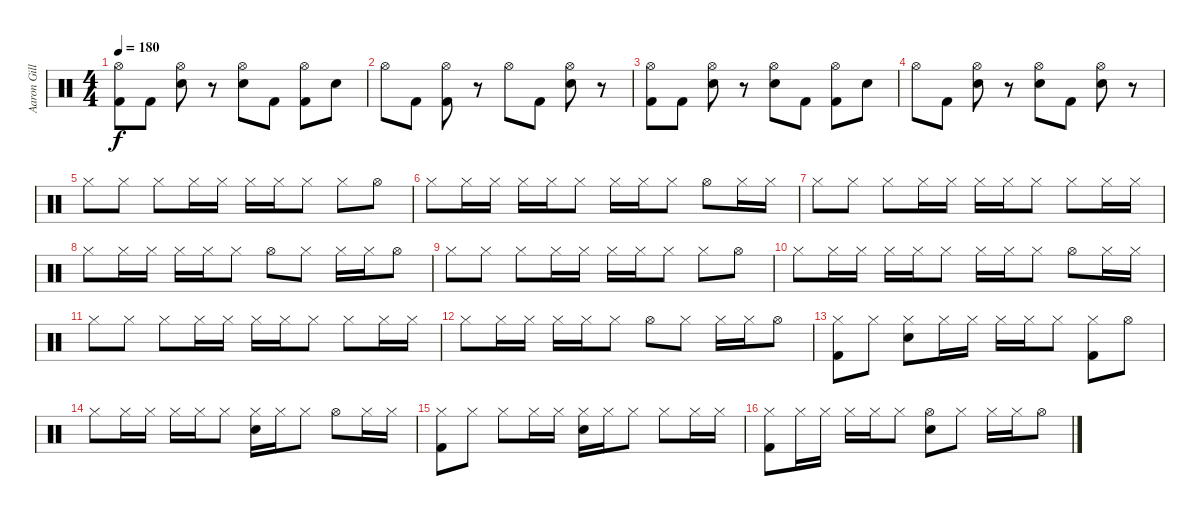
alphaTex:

\track ("Aaron Gillespie 1" "Aaron Gill") {instrument percussion}
\staff {score}
\articulation defaults
\ts (4 4)
\tempo 180
\clef neutral
\ks c
("Hi-Hat (open)" "Kick (hit) 2").8{dy f} "Kick (hit) 2".8 ("Hi-Hat (open)" "Snare (hit) 2").8 r.8 ("Hi-Hat (open)" "Snare (hit) 2").8 "Kick (hit) 2".8 ("Hi-Hat (open)" "Kick (hit) 2").8 "Snare (hit) 2".8 |
"Hi-Hat (open)".8 "Kick (hit) 2".8 ("Hi-Hat (open)" "Kick (hit) 2").8 r.8 "Hi-Hat (open)".8 "Kick (hit) 2".8 ("Hi-Hat (open)" "Snare (hit) 2").8 r.8 |
("Hi-Hat (open)" "Kick (hit) 2").8 "Kick (hit) 2".8 ("Hi-Hat (open)" "Snare (hit) 2").8 r.8 ("Hi-Hat (open)" "Snare (hit) 2").8 "Kick (hit) 2".8 ("Hi-Hat (open)" "Kick (hit) 2").8 "Snare (hit) 2".8 |
"Hi-Hat (open)".8 "Kick (hit) 2".8 ("Hi-Hat (open)" "Snare (hit) 2").8 r.8 ("Hi-Hat (open)" "Snare (hit) 2").8 "Kick (hit) 2".8 ("Hi-Hat (open)" "Snare (hit) 2").8 r.8 |
"Hi-Hat (closed)".8 "Hi-Hat (closed)".8 "Hi-Hat (closed)".8 "Hi-Hat (closed)".16 "Hi-Hat (closed)".16 "Hi-Hat (closed)".16 "Hi-Hat (closed)".16 "Hi-Hat (closed)".8 "Hi-Hat (closed)".8 "Hi-Hat (open)".8 |
"Hi-Hat (closed)".8 "Hi-Hat (closed)".16 "Hi-Hat (closed)".16 "Hi-Hat (closed)".16 "Hi-Hat (closed)".16 "Hi-Hat (closed)".8 "Hi-Hat (closed)".16 "Hi-Hat (closed)".16 "Hi-Hat (closed)".8 "Hi-Hat (open)".8 "Hi-Hat (closed)".16 "Hi-Hat (closed)".16 |
"Hi-Hat (closed)".8 "Hi-Hat (closed)".8 "Hi-Hat (closed)".8 "Hi-Hat (closed)".16 "Hi-Hat (closed)".16 "Hi-Hat (closed)".16 "Hi-Hat (closed)".16 "Hi-Hat (closed)".8 "Hi-Hat (closed)".8 "Hi-Hat (closed)".16 "Hi-Hat (closed)".16 |
"Hi-Hat (closed)".8 "Hi-Hat (closed)".16 "Hi-Hat (closed)".16 "Hi-Hat (closed)".16 "Hi-Hat (closed)".16 "Hi-Hat (closed)".8 "Hi-Hat (open)".8 "Hi-Hat (closed)".8 "Hi-Hat (closed)".16 "Hi-Hat (closed)".16 "Hi-Hat (open)".8 |
"Hi-Hat (closed)".8 "Hi-Hat (closed)".8 "Hi-Hat (closed)".8 "Hi-Hat (closed)".16 "Hi-Hat (closed)".16 "Hi-Hat (closed)".16 "Hi-Hat (closed)".16 "Hi-Hat (closed)".8 "Hi-Hat (closed)".8 "Hi-Hat (open)".8 |
"Hi-Hat (closed)".8 "Hi-Hat (closed)".16 "Hi-Hat (closed)".16 "Hi-Hat (closed)".16 "Hi-Hat (closed)".16 "Hi-Hat (closed)".8 "Hi-Hat (closed)".16 "Hi-Hat (closed)".16 "Hi-Hat (closed)".8 "Hi-Hat (open)".8 "Hi-Hat (closed)".16 "Hi-Hat (closed)".16 |
"Hi-Hat (closed)".8 "Hi-Hat (closed)".8 "Hi-Hat (closed)".8 "Hi-Hat (closed)".16 "Hi-Hat (closed)".16 "Hi-Hat (closed)".16 "Hi-Hat (closed)".16 "Hi-Hat (closed)".8 "Hi-Hat (closed)".8 "Hi-Hat (closed)".16 "Hi-Hat (closed)".16 |
"Hi-Hat (closed)".8 "Hi-Hat (closed)".16 "Hi-Hat (closed)".16 "Hi-Hat (closed)".16 "Hi-Hat (closed)".16 "Hi-Hat (closed)".8 "Hi-Hat (open)".8 "Hi-Hat (closed)".8 "Hi-Hat (closed)".16 "Hi-Hat (closed)".16 "Hi-Hat (open)".8 |
("Hi-Hat (closed)" "Kick (hit) 2").8 "Hi-Hat (closed)".8 ("Hi-Hat (closed)" "Snare (hit) 2").8 "Hi-Hat (closed)".16 "Hi-Hat (closed)".16 "Hi-Hat (closed)".16 "Hi-Hat (closed)".16 "Hi-Hat (closed)".8 ("Hi-Hat (closed)" "Kick (hit) 2").8 "Hi-Hat (open)".8 |
"Hi-Hat (closed)".8 "Hi-Hat (closed)".16 "Hi-Hat (closed)".16 "Hi-Hat (closed)".16 "Hi-Hat (closed)".16 "Hi-Hat (closed)".8 ("Hi-Hat (closed)" "Snare (hit) 2").16 "Hi-Hat (closed)".16 "Hi-Hat (closed)".8 "Hi-Hat (open)".8 "Hi-Hat (closed)".16 "Hi-Hat (closed)".16 |
("Hi-Hat (closed)" "Kick (hit) 2").8 "Hi-Hat (closed)".8 "Hi-Hat (closed)".8 "Hi-Hat (closed)".16 "Hi-Hat (closed)".16 ("Hi-Hat (closed)" "Snare (hit) 2").16 "Hi-Hat (closed)".16 "Hi-Hat (closed)".8 "Hi-Hat (closed)".8 "Hi-Hat (closed)".16 "Hi-Hat (closed)".16 |
("Hi-Hat (closed)" "Kick (hit) 2").8 "Hi-Hat (closed)".16 "Hi-Hat (closed)".16 "Hi-Hat (closed)".16 "Hi-Hat (closed)".16 "Hi-Hat (closed)".8 ("Hi-Hat (open)" "Snare (hit) 2").8 "Hi-Hat (closed)".8 "Hi-Hat (closed)".16 "Hi-Hat (closed)".16 "Hi-Hat (open)".8
